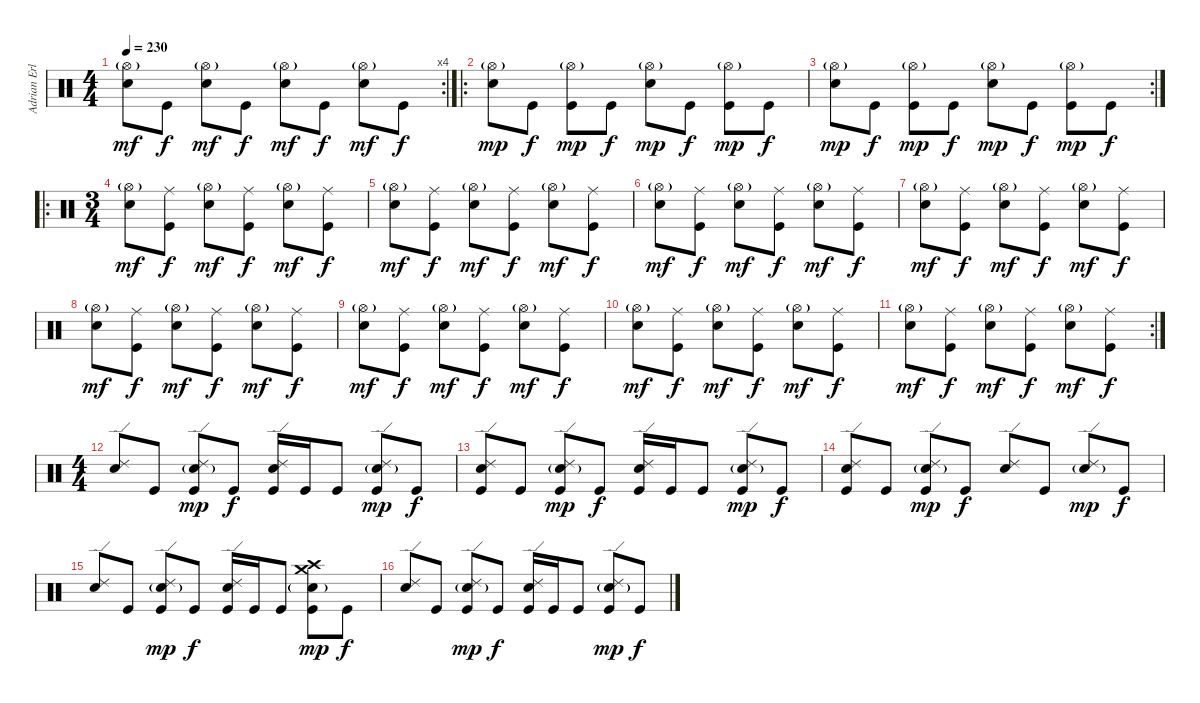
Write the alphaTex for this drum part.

\track ("Adrian Erlandsson - Drums" "Adrian Erl") {instrument percussion}
\staff {score}
\articulation defaults
\rc 4
\ts (4 4)
\tempo 230
\clef neutral
\ks c
("Hi-Hat (open)"{g} "Electric Snare (hit)").8{dy mf} "Kick (hit)".8{dy f} ("Hi-Hat (open)"{g} "Electric Snare (hit)").8{dy mf} "Kick (hit)".8{dy f} ("Hi-Hat (open)"{g} "Electric Snare (hit)").8{dy mf} "Kick (hit)".8{dy f} ("Hi-Hat (open)"{g} "Electric Snare (hit)").8{dy mf} "Kick (hit)".8{dy f} |
\ro
("Hi-Hat (open)"{g} "Electric Snare (hit)").8{dy mp} "Kick (hit)".8{dy f} ("Hi-Hat (open)"{g} "Kick (hit)").8{dy mp} "Kick (hit)".8{dy f} ("Hi-Hat (open)"{g} "Electric Snare (hit)").8{dy mp} "Kick (hit)".8{dy f} ("Hi-Hat (open)"{g} "Kick (hit)").8{dy mp} "Kick (hit)".8{dy f} |
\rc 2
("Hi-Hat (open)"{g} "Electric Snare (hit)").8{dy mp} "Kick (hit)".8{dy f} ("Hi-Hat (open)"{g} "Kick (hit)").8{dy mp} "Kick (hit)".8{dy f} ("Hi-Hat (open)"{g} "Electric Snare (hit)").8{dy mp} "Kick (hit)".8{dy f} ("Hi-Hat (open)"{g} "Kick (hit)").8{dy mp} "Kick (hit)".8{dy f} |
\ro
\ts (3 4)
("Hi-Hat (open)"{g} "Electric Snare (hit)").8{dy mf} ("Ride (middle)" "Kick (hit)").8{dy f} ("Hi-Hat (open)"{g} "Electric Snare (hit)").8{dy mf} ("Ride (middle)" "Kick (hit)").8{dy f} ("Hi-Hat (open)"{g} "Electric Snare (hit)").8{dy mf} ("Ride (middle)" "Kick (hit)").8{dy f} |
("Hi-Hat (open)"{g} "Electric Snare (hit)").8{dy mf} ("Ride (middle)" "Kick (hit)").8{dy f} ("Hi-Hat (open)"{g} "Electric Snare (hit)").8{dy mf} ("Ride (middle)" "Kick (hit)").8{dy f} ("Hi-Hat (open)"{g} "Electric Snare (hit)").8{dy mf} ("Ride (middle)" "Kick (hit)").8{dy f} |
("Hi-Hat (open)"{g} "Electric Snare (hit)").8{dy mf} ("Ride (middle)" "Kick (hit)").8{dy f} ("Hi-Hat (open)"{g} "Electric Snare (hit)").8{dy mf} ("Ride (middle)" "Kick (hit)").8{dy f} ("Hi-Hat (open)"{g} "Electric Snare (hit)").8{dy mf} ("Ride (middle)" "Kick (hit)").8{dy f} |
("Hi-Hat (open)"{g} "Electric Snare (hit)").8{dy mf} ("Ride (middle)" "Kick (hit)").8{dy f} ("Hi-Hat (open)"{g} "Electric Snare (hit)").8{dy mf} ("Ride (middle)" "Kick (hit)").8{dy f} ("Hi-Hat (open)"{g} "Electric Snare (hit)").8{dy mf} ("Ride (middle)" "Kick (hit)").8{dy f} |
("Hi-Hat (open)"{g} "Electric Snare (hit)").8{dy mf} ("Ride (middle)" "Kick (hit)").8{dy f} ("Hi-Hat (open)"{g} "Electric Snare (hit)").8{dy mf} ("Ride (middle)" "Kick (hit)").8{dy f} ("Hi-Hat (open)"{g} "Electric Snare (hit)").8{dy mf} ("Ride (middle)" "Kick (hit)").8{dy f} |
("Hi-Hat (open)"{g} "Electric Snare (hit)").8{dy mf} ("Ride (middle)" "Kick (hit)").8{dy f} ("Hi-Hat (open)"{g} "Electric Snare (hit)").8{dy mf} ("Ride (middle)" "Kick (hit)").8{dy f} ("Hi-Hat (open)"{g} "Electric Snare (hit)").8{dy mf} ("Ride (middle)" "Kick (hit)").8{dy f} |
("Hi-Hat (open)"{g} "Electric Snare (hit)").8{dy mf} ("Ride (middle)" "Kick (hit)").8{dy f} ("Hi-Hat (open)"{g} "Electric Snare (hit)").8{dy mf} ("Ride (middle)" "Kick (hit)").8{dy f} ("Hi-Hat (open)"{g} "Electric Snare (hit)").8{dy mf} ("Ride (middle)" "Kick (hit)").8{dy f} |
\rc 2
("Hi-Hat (open)"{g} "Electric Snare (hit)").8{dy mf} ("Ride (middle)" "Kick (hit)").8{dy f} ("Hi-Hat (open)"{g} "Electric Snare (hit)").8{dy mf} ("Ride (middle)" "Kick (hit)").8{dy f} ("Hi-Hat (open)"{g} "Electric Snare (hit)").8{dy mf} ("Ride (middle)" "Kick (hit)").8{dy f} |
\ts (4 4)
("Ride (edge) 2" "Electric Snare (hit)").8 "Kick (hit)".8 ("Ride (edge) 2" "Electric Snare (hit)"{g} "Kick (hit)").8{dy mp} "Kick (hit)".8{dy f} ("Ride (edge) 2" "Electric Snare (hit)" "Kick (hit)").16 "Kick (hit)".16 "Kick (hit)".8 ("Ride (edge) 2" "Electric Snare (hit)"{g} "Kick (hit)").8{dy mp} "Kick (hit)".8{dy f} |
("Ride (edge) 2" "Electric Snare (hit)" "Kick (hit)").8 "Kick (hit)".8 ("Ride (edge) 2" "Electric Snare (hit)"{g} "Kick (hit)").8{dy mp} "Kick (hit)".8{dy f} ("Ride (edge) 2" "Electric Snare (hit)" "Kick (hit)").16 "Kick (hit)".16 "Kick (hit)".8 ("Ride (edge) 2" "Electric Snare (hit)"{g} "Kick (hit)").8{dy mp} "Kick (hit)".8{dy f} |
("Ride (edge) 2" "Electric Snare (hit)" "Kick (hit)").8 "Kick (hit)".8 ("Ride (edge) 2" "Electric Snare (hit)"{g} "Kick (hit)").8{dy mp} "Kick (hit)".8{dy f} ("Ride (edge) 2" "Electric Snare (hit)").8 "Kick (hit)".8 ("Ride (edge) 2" "Electric Snare (hit)"{g}).8{dy mp} "Kick (hit)".8{dy f} |
("Ride (edge) 2" "Electric Snare (hit)").8 "Kick (hit)".8 ("Ride (edge) 2" "Electric Snare (hit)"{g} "Kick (hit)").8{dy mp} "Kick (hit)".8{dy f} ("Ride (edge) 2" "Electric Snare (hit)" "Kick (hit)").16 "Kick (hit)".16 "Kick (hit)".8 ("Crash medium (hit)" "Crash high (hit)" "Electric Snare (hit)"{g} "Kick (hit)").8{dy mp} "Kick (hit)".8{dy f} |
("Ride (edge) 2" "Electric Snare (hit)").8 "Kick (hit)".8 ("Ride (edge) 2" "Electric Snare (hit)"{g} "Kick (hit)").8{dy mp} "Kick (hit)".8{dy f} ("Ride (edge) 2" "Electric Snare (hit)" "Kick (hit)").16 "Kick (hit)".16 "Kick (hit)".8 ("Ride (edge) 2" "Electric Snare (hit)"{g} "Kick (hit)").8{dy mp} "Kick (hit)".8{dy f}
